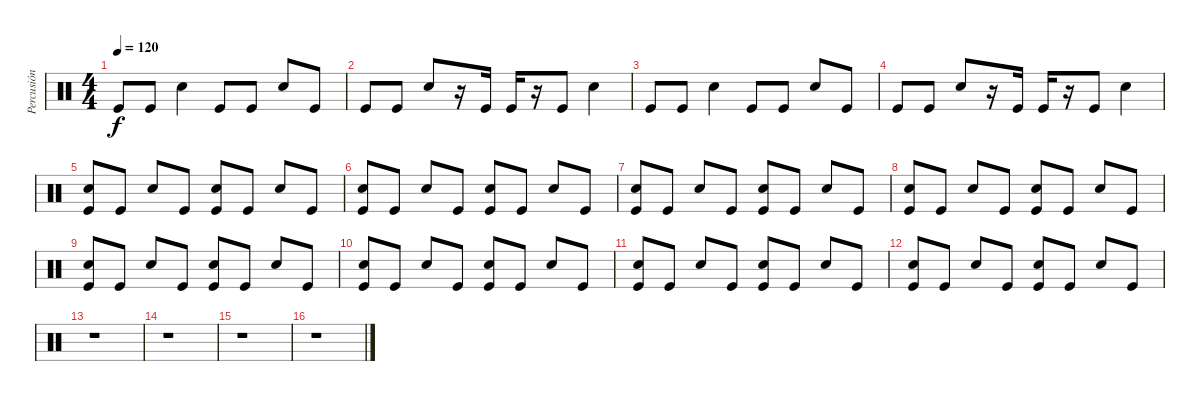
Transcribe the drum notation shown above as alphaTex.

\track ("Percusión" "Percusión") {instrument percussion}
\staff {score}
\articulation defaults
\ts (4 4)
\tempo 120
\clef neutral
\ks c "Kick (hit)".8{dy f} "Kick (hit)".8 "Snare (hit) 2".4 "Kick (hit)".8 "Kick (hit)".8 "Snare (hit) 2".8 "Kick (hit)".8
|
"Kick (hit)".8 "Kick (hit)".8 "Snare (hit) 2".8 r.16 "Kick (hit)".16 "Kick (hit)".16 r.16 "Kick (hit)".8 "Snare (hit) 2".4 |
"Kick (hit)".8 "Kick (hit)".8 "Snare (hit) 2".4 "Kick (hit)".8 "Kick (hit)".8 "Snare (hit) 2".8 "Kick (hit)".8 |
"Kick (hit)".8 "Kick (hit)".8 "Snare (hit) 2".8 r.16 "Kick (hit)".16 "Kick (hit)".16 r.16 "Kick (hit)".8 "Snare (hit) 2".4 |
("Snare (hit) 2" "Kick (hit)").8 "Kick (hit)".8 "Snare (hit) 2".8 "Kick (hit)".8 ("Snare (hit) 2" "Kick (hit)").8 "Kick (hit)".8 "Snare (hit) 2".8 "Kick (hit)".8 |
("Snare (hit) 2" "Kick (hit)").8 "Kick (hit)".8 "Snare (hit) 2".8 "Kick (hit)".8 ("Snare (hit) 2" "Kick (hit)").8 "Kick (hit)".8 "Snare (hit) 2".8 "Kick (hit)".8 |
("Snare (hit) 2" "Kick (hit)").8 "Kick (hit)".8 "Snare (hit) 2".8 "Kick (hit)".8 ("Snare (hit) 2" "Kick (hit)").8 "Kick (hit)".8 "Snare (hit) 2".8 "Kick (hit)".8 |
("Snare (hit) 2" "Kick (hit)").8 "Kick (hit)".8 "Snare (hit) 2".8 "Kick (hit)".8 ("Snare (hit) 2" "Kick (hit)").8 "Kick (hit)".8 "Snare (hit) 2".8 "Kick (hit)".8 |
("Snare (hit) 2" "Kick (hit)").8 "Kick (hit)".8 "Snare (hit) 2".8 "Kick (hit)".8 ("Snare (hit) 2" "Kick (hit)").8 "Kick (hit)".8 "Snare (hit) 2".8 "Kick (hit)".8 |
("Snare (hit) 2" "Kick (hit)").8 "Kick (hit)".8 "Snare (hit) 2".8 "Kick (hit)".8 ("Snare (hit) 2" "Kick (hit)").8 "Kick (hit)".8 "Snare (hit) 2".8 "Kick (hit)".8 |
("Snare (hit) 2" "Kick (hit)").8 "Kick (hit)".8 "Snare (hit) 2".8 "Kick (hit)".8 ("Snare (hit) 2" "Kick (hit)").8 "Kick (hit)".8 "Snare (hit) 2".8 "Kick (hit)".8 |
("Snare (hit) 2" "Kick (hit)").8 "Kick (hit)".8 "Snare (hit) 2".8 "Kick (hit)".8 ("Snare (hit) 2" "Kick (hit)").8 "Kick (hit)".8 "Snare (hit) 2".8 "Kick (hit)".8 |
r.1 |
r.1 |
r.1 |
r.1
